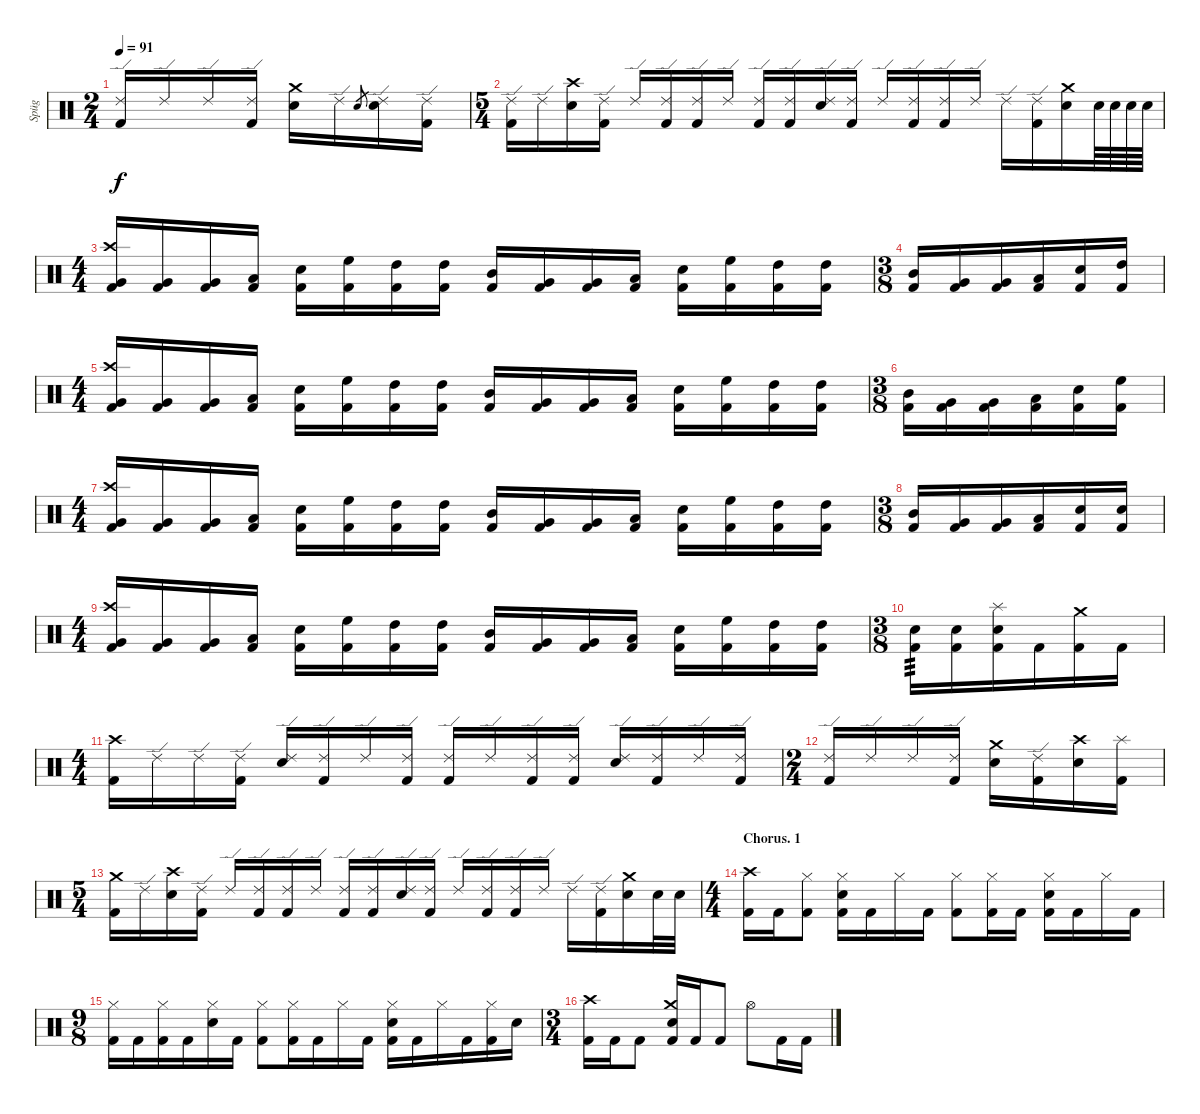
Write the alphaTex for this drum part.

\track ("Spüg" "Spüg") {instrument percussion}
\staff {score}
\articulation defaults
\ts (2 4)
\tempo 91
\clef neutral
\ks c
("Ride (edge) 2" "Kick (hit) 2").16{dy f} "Ride (edge) 2".16 "Ride (edge) 2".16 ("Ride (edge) 2" "Kick (hit) 2").16 ("Crash medium (hit)" "Electric Snare (hit)").16 "Ride (edge) 2".16 "Electric Snare (hit)".8{gr} ("Ride (edge) 2" "Electric Snare (hit)").16 ("Ride (edge) 2" "Kick (hit) 2").16 |
\ts (5 4)
("Ride (edge) 2" "Kick (hit) 2").16 "Ride (edge) 2".16 ("Crash high (hit)" "Electric Snare (hit)").16 ("Ride (edge) 2" "Kick (hit) 2").16 "Ride (edge) 2".16 ("Ride (edge) 2" "Kick (hit) 2").16 ("Ride (edge) 2" "Kick (hit) 2").16 "Ride (edge) 2".16 ("Ride (edge) 2" "Kick (hit) 2").16 ("Ride (edge) 2" "Kick (hit) 2").16 ("Ride (edge) 2" "Electric Snare (hit)").16 ("Ride (edge) 2" "Kick (hit) 2").16 "Ride (edge) 2".16 ("Ride (edge) 2" "Kick (hit) 2").16 ("Ride (edge) 2" "Kick (hit) 2").16 "Ride (edge) 2".16 "Ride (edge) 2".16 ("Ride (edge) 2" "Kick (hit) 2").16 ("Crash medium (hit)" "Electric Snare (hit)").16 "Electric Snare (hit)".64 "Electric Snare (hit)".64 "Electric Snare (hit)".64 "Electric Snare (hit)".64 |
\ts (4 4)
("Crash high (hit)" "Very Low Tom (hit)" "Kick (hit) 2").16 ("Very Low Tom (hit)" "Kick (hit) 2").16 ("Very Low Tom (hit)" "Kick (hit) 2").16 ("Low Tom (hit)" "Kick (hit) 2").16 ("Electric Snare (hit)" "Kick (hit) 2").16 ("High Floor Tom (hit)" "Kick (hit) 2").16 ("High Tom (hit)" "Kick (hit) 2").16 ("High Tom (hit)" "Kick (hit) 2").16 ("Mid Tom (hit)" "Kick (hit) 2").16 ("Very Low Tom (hit)" "Kick (hit) 2").16 ("Very Low Tom (hit)" "Kick (hit) 2").16 ("Low Tom (hit)" "Kick (hit) 2").16 ("Electric Snare (hit)" "Kick (hit) 2").16 ("High Floor Tom (hit)" "Kick (hit) 2").16 ("High Tom (hit)" "Kick (hit) 2").16 ("High Tom (hit)" "Kick (hit) 2").16 |
\ts (3 8)
("Mid Tom (hit)" "Kick (hit) 2").16 ("Very Low Tom (hit)" "Kick (hit) 2").16 ("Very Low Tom (hit)" "Kick (hit) 2").16 ("Low Tom (hit)" "Kick (hit) 2").16 ("Electric Snare (hit)" "Kick (hit) 2").16 ("High Tom (hit)" "Kick (hit) 2").16 |
\ts (4 4)
("Crash high (hit)" "Very Low Tom (hit)" "Kick (hit) 2").16 ("Very Low Tom (hit)" "Kick (hit) 2").16 ("Very Low Tom (hit)" "Kick (hit) 2").16 ("Low Tom (hit)" "Kick (hit) 2").16 ("Electric Snare (hit)" "Kick (hit) 2").16 ("High Floor Tom (hit)" "Kick (hit) 2").16 ("High Tom (hit)" "Kick (hit) 2").16 ("High Tom (hit)" "Kick (hit) 2").16 ("Mid Tom (hit)" "Kick (hit) 2").16 ("Very Low Tom (hit)" "Kick (hit) 2").16 ("Very Low Tom (hit)" "Kick (hit) 2").16 ("Low Tom (hit)" "Kick (hit) 2").16 ("Electric Snare (hit)" "Kick (hit) 2").16 ("High Floor Tom (hit)" "Kick (hit) 2").16 ("High Tom (hit)" "Kick (hit) 2").16 ("High Tom (hit)" "Kick (hit) 2").16 |
\ts (3 8)
("Mid Tom (hit)" "Kick (hit) 2").16 ("Very Low Tom (hit)" "Kick (hit) 2").16 ("Very Low Tom (hit)" "Kick (hit) 2").16 ("Low Tom (hit)" "Kick (hit) 2").16 ("Electric Snare (hit)" "Kick (hit) 2").16 ("High Floor Tom (hit)" "Kick (hit) 2").16 |
\ts (4 4)
("Crash high (hit)" "Very Low Tom (hit)" "Kick (hit) 2").16 ("Very Low Tom (hit)" "Kick (hit) 2").16 ("Very Low Tom (hit)" "Kick (hit) 2").16 ("Low Tom (hit)" "Kick (hit) 2").16 ("Electric Snare (hit)" "Kick (hit) 2").16 ("High Floor Tom (hit)" "Kick (hit) 2").16 ("High Tom (hit)" "Kick (hit) 2").16 ("High Tom (hit)" "Kick (hit) 2").16 ("Mid Tom (hit)" "Kick (hit) 2").16 ("Very Low Tom (hit)" "Kick (hit) 2").16 ("Very Low Tom (hit)" "Kick (hit) 2").16 ("Low Tom (hit)" "Kick (hit) 2").16 ("Electric Snare (hit)" "Kick (hit) 2").16 ("High Floor Tom (hit)" "Kick (hit) 2").16 ("High Tom (hit)" "Kick (hit) 2").16 ("High Tom (hit)" "Kick (hit) 2").16 |
\ts (3 8)
("Mid Tom (hit)" "Kick (hit) 2").16 ("Very Low Tom (hit)" "Kick (hit) 2").16 ("Very Low Tom (hit)" "Kick (hit) 2").16 ("Low Tom (hit)" "Kick (hit) 2").16 ("Electric Snare (hit)" "Kick (hit) 2").16 ("Electric Snare (hit)" "Kick (hit) 2").16 |
\ts (4 4)
("Crash high (hit)" "Very Low Tom (hit)" "Kick (hit) 2").16 ("Very Low Tom (hit)" "Kick (hit) 2").16 ("Very Low Tom (hit)" "Kick (hit) 2").16 ("Low Tom (hit)" "Kick (hit) 2").16 ("Electric Snare (hit)" "Kick (hit) 2").16 ("High Floor Tom (hit)" "Kick (hit) 2").16 ("High Tom (hit)" "Kick (hit) 2").16 ("High Tom (hit)" "Kick (hit) 2").16 ("Mid Tom (hit)" "Kick (hit) 2").16 ("Very Low Tom (hit)" "Kick (hit) 2").16 ("Very Low Tom (hit)" "Kick (hit) 2").16 ("Low Tom (hit)" "Kick (hit) 2").16 ("Electric Snare (hit)" "Kick (hit) 2").16 ("High Floor Tom (hit)" "Kick (hit) 2").16 ("High Tom (hit)" "Kick (hit) 2").16 ("High Tom (hit)" "Kick (hit) 2").16 |
\ts (3 8)
("Electric Snare (hit)" "Kick (hit) 2").16{tp 3} ("Electric Snare (hit)" "Kick (hit) 2").16 ("Splash (hit)" "Electric Snare (hit)" "Kick (hit) 2").16 "Kick (hit) 2".16 ("Crash medium (hit)" "Kick (hit) 2").16 "Kick (hit) 2".16 |
\ts (4 4)
("Crash high (hit)" "Kick (hit) 2").16 "Ride (edge) 2".16 "Ride (edge) 2".16 ("Ride (edge) 2" "Kick (hit) 2").16 ("Ride (edge) 2" "Electric Snare (hit)").16 ("Ride (edge) 2" "Kick (hit) 2").16 "Ride (edge) 2".16 ("Ride (edge) 2" "Kick (hit) 2").16 ("Ride (edge) 2" "Kick (hit) 2").16 "Ride (edge) 2".16 ("Ride (edge) 2" "Kick (hit) 2").16 ("Ride (edge) 2" "Kick (hit) 2").16 ("Ride (edge) 2" "Electric Snare (hit)").16 ("Ride (edge) 2" "Kick (hit) 2").16 "Ride (edge) 2".16 ("Ride (edge) 2" "Kick (hit) 2").16 |
\ts (2 4)
("Ride (edge) 2" "Kick (hit) 2").16 "Ride (edge) 2".16 "Ride (edge) 2".16 ("Ride (edge) 2" "Kick (hit) 2").16 ("Crash medium (hit)" "Electric Snare (hit)").16 ("Ride (edge) 2" "Kick (hit) 2").16 ("Crash high (hit)" "Electric Snare (hit)").16 ("Splash (hit)" "Kick (hit) 2").16 |
\ts (5 4)
("Crash medium (hit)" "Kick (hit) 2").16 "Ride (edge) 2".16 ("Crash high (hit)" "Electric Snare (hit)").16 ("Ride (edge) 2" "Kick (hit) 2").16 "Ride (edge) 2".16 ("Ride (edge) 2" "Kick (hit) 2").16 ("Ride (edge) 2" "Kick (hit) 2").16 "Ride (edge) 2".16 ("Ride (edge) 2" "Kick (hit) 2").16 ("Ride (edge) 2" "Kick (hit) 2").16 ("Ride (edge) 2" "Electric Snare (hit)").16 ("Ride (edge) 2" "Kick (hit) 2").16 "Ride (edge) 2".16 ("Ride (edge) 2" "Kick (hit) 2").16 ("Ride (edge) 2" "Kick (hit) 2").16 "Ride (edge) 2".16 "Ride (edge) 2".16 ("Ride (edge) 2" "Kick (hit) 2").16 ("Crash medium (hit)" "Electric Snare (hit)").16 "Electric Snare (hit)".32 "Electric Snare (hit)".32 |
\ts (4 4)
\section ("" "Chorus. 1")
("Crash high (hit)" "Kick (hit) 2").16 "Kick (hit) 2".16 ("Hi-Hat (closed)" "Kick (hit) 2").8 ("Hi-Hat (closed)" "Electric Snare (hit)" "Kick (hit) 2").16 "Kick (hit) 2".16 "Hi-Hat (closed)".16 "Kick (hit) 2".16 ("Hi-Hat (closed)" "Kick (hit) 2").8 ("Hi-Hat (closed)" "Kick (hit) 2").16 "Kick (hit) 2".16 ("Hi-Hat (closed)" "Electric Snare (hit)" "Kick (hit) 2").16 "Kick (hit) 2".16 "Hi-Hat (closed)".16 "Kick (hit) 2".16 |
\ts (9 8)
("Hi-Hat (closed)" "Kick (hit) 2").16 "Kick (hit) 2".16 ("Hi-Hat (closed)" "Kick (hit) 2").16 "Kick (hit) 2".16 ("Hi-Hat (closed)" "Electric Snare (hit)").16 "Kick (hit) 2".16 ("Hi-Hat (closed)" "Kick (hit) 2").8 ("Hi-Hat (closed)" "Kick (hit) 2").16 "Kick (hit) 2".16 "Hi-Hat (closed)".16 "Kick (hit) 2".16 ("Hi-Hat (closed)" "Electric Snare (hit)" "Kick (hit) 2").16 "Kick (hit) 2".16 "Hi-Hat (closed)".16 "Kick (hit) 2".16 ("Hi-Hat (closed)" "Kick (hit) 2").16 "Electric Snare (hit)".16 |
\ts (3 4)
("Crash high (hit)" "Kick (hit) 2").16 "Kick (hit) 2".16 "Kick (hit) 2".8 ("Crash medium (hit)" "Electric Snare (hit)" "Kick (hit) 2").16 "Kick (hit) 2".16 "Kick (hit) 2".8 "Hi-Hat (open)".8 "Kick (hit) 2".16 "Kick (hit) 2".16
